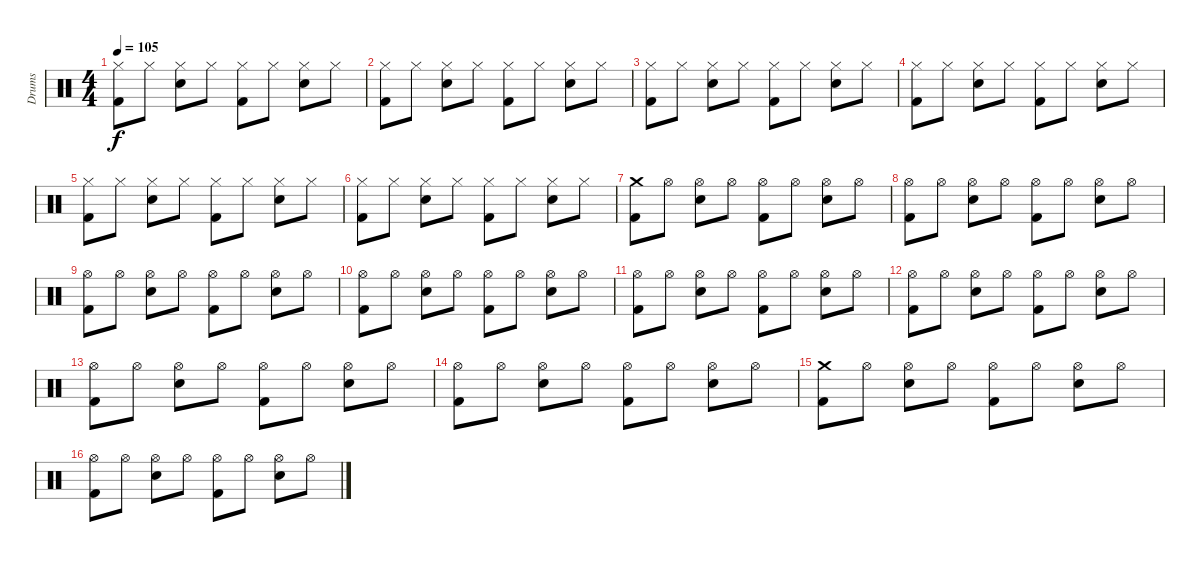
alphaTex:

\track ("Drums" "Drums") {instrument percussion}
\staff {score}
\articulation defaults
\ts (4 4)
\tempo 105
\clef neutral
\ks c
("Hi-Hat (closed)" "Kick (hit) 2").8{dy f} "Hi-Hat (closed)".8 ("Hi-Hat (closed)" "Electric Snare (hit)").8 "Hi-Hat (closed)".8 ("Hi-Hat (closed)" "Kick (hit) 2").8 "Hi-Hat (closed)".8 ("Hi-Hat (closed)" "Electric Snare (hit)").8 "Hi-Hat (closed)".8 |
("Hi-Hat (closed)" "Kick (hit) 2").8 "Hi-Hat (closed)".8 ("Hi-Hat (closed)" "Electric Snare (hit)").8 "Hi-Hat (closed)".8 ("Hi-Hat (closed)" "Kick (hit) 2").8 "Hi-Hat (closed)".8 ("Hi-Hat (closed)" "Electric Snare (hit)").8 "Hi-Hat (closed)".8 |
("Hi-Hat (closed)" "Kick (hit) 2").8 "Hi-Hat (closed)".8 ("Hi-Hat (closed)" "Electric Snare (hit)").8 "Hi-Hat (closed)".8 ("Hi-Hat (closed)" "Kick (hit) 2").8 "Hi-Hat (closed)".8 ("Hi-Hat (closed)" "Electric Snare (hit)").8 "Hi-Hat (closed)".8 |
("Hi-Hat (closed)" "Kick (hit) 2").8 "Hi-Hat (closed)".8 ("Hi-Hat (closed)" "Electric Snare (hit)").8 "Hi-Hat (closed)".8 ("Hi-Hat (closed)" "Kick (hit) 2").8 "Hi-Hat (closed)".8 ("Hi-Hat (closed)" "Electric Snare (hit)").8 "Hi-Hat (closed)".8 |
("Hi-Hat (closed)" "Kick (hit) 2").8 "Hi-Hat (closed)".8 ("Hi-Hat (closed)" "Electric Snare (hit)").8 "Hi-Hat (closed)".8 ("Hi-Hat (closed)" "Kick (hit) 2").8 "Hi-Hat (closed)".8 ("Hi-Hat (closed)" "Electric Snare (hit)").8 "Hi-Hat (closed)".8 |
("Hi-Hat (closed)" "Kick (hit) 2").8 "Hi-Hat (closed)".8 ("Hi-Hat (closed)" "Electric Snare (hit)").8 "Hi-Hat (closed)".8 ("Hi-Hat (closed)" "Kick (hit) 2").8 "Hi-Hat (closed)".8 ("Hi-Hat (closed)" "Electric Snare (hit)").8 "Hi-Hat (closed)".8 |
("Crash medium (hit)" "Kick (hit) 2").8 "Hi-Hat (open)".8 ("Hi-Hat (open)" "Electric Snare (hit)").8 "Hi-Hat (open)".8 ("Hi-Hat (open)" "Kick (hit) 2").8 "Hi-Hat (open)".8 ("Hi-Hat (open)" "Electric Snare (hit)").8 "Hi-Hat (open)".8 |
("Hi-Hat (open)" "Kick (hit) 2").8 "Hi-Hat (open)".8 ("Hi-Hat (open)" "Electric Snare (hit)").8 "Hi-Hat (open)".8 ("Hi-Hat (open)" "Kick (hit) 2").8 "Hi-Hat (open)".8 ("Hi-Hat (open)" "Electric Snare (hit)").8 "Hi-Hat (open)".8 |
("Hi-Hat (open)" "Kick (hit) 2").8 "Hi-Hat (open)".8 ("Hi-Hat (open)" "Electric Snare (hit)").8 "Hi-Hat (open)".8 ("Hi-Hat (open)" "Kick (hit) 2").8 "Hi-Hat (open)".8 ("Hi-Hat (open)" "Electric Snare (hit)").8 "Hi-Hat (open)".8 |
("Hi-Hat (open)" "Kick (hit) 2").8 "Hi-Hat (open)".8 ("Hi-Hat (open)" "Electric Snare (hit)").8 "Hi-Hat (open)".8 ("Hi-Hat (open)" "Kick (hit) 2").8 "Hi-Hat (open)".8 ("Hi-Hat (open)" "Electric Snare (hit)").8 "Hi-Hat (open)".8 |
("Hi-Hat (open)" "Kick (hit) 2").8 "Hi-Hat (open)".8 ("Hi-Hat (open)" "Electric Snare (hit)").8 "Hi-Hat (open)".8 ("Hi-Hat (open)" "Kick (hit) 2").8 "Hi-Hat (open)".8 ("Hi-Hat (open)" "Electric Snare (hit)").8 "Hi-Hat (open)".8 |
("Hi-Hat (open)" "Kick (hit) 2").8 "Hi-Hat (open)".8 ("Hi-Hat (open)" "Electric Snare (hit)").8 "Hi-Hat (open)".8 ("Hi-Hat (open)" "Kick (hit) 2").8 "Hi-Hat (open)".8 ("Hi-Hat (open)" "Electric Snare (hit)").8 "Hi-Hat (open)".8 |
("Hi-Hat (open)" "Kick (hit) 2").8 "Hi-Hat (open)".8 ("Hi-Hat (open)" "Electric Snare (hit)").8 "Hi-Hat (open)".8 ("Hi-Hat (open)" "Kick (hit) 2").8 "Hi-Hat (open)".8 ("Hi-Hat (open)" "Electric Snare (hit)").8 "Hi-Hat (open)".8 |
("Hi-Hat (open)" "Kick (hit) 2").8 "Hi-Hat (open)".8 ("Hi-Hat (open)" "Electric Snare (hit)").8 "Hi-Hat (open)".8 ("Hi-Hat (open)" "Kick (hit) 2").8 "Hi-Hat (open)".8 ("Hi-Hat (open)" "Electric Snare (hit)").8 "Hi-Hat (open)".8 |
("Crash medium (hit)" "Kick (hit) 2").8 "Hi-Hat (open)".8 ("Hi-Hat (open)" "Electric Snare (hit)").8 "Hi-Hat (open)".8 ("Hi-Hat (open)" "Kick (hit) 2").8 "Hi-Hat (open)".8 ("Hi-Hat (open)" "Electric Snare (hit)").8 "Hi-Hat (open)".8 |
("Hi-Hat (open)" "Kick (hit) 2").8 "Hi-Hat (open)".8 ("Hi-Hat (open)" "Electric Snare (hit)").8 "Hi-Hat (open)".8 ("Hi-Hat (open)" "Kick (hit) 2").8 "Hi-Hat (open)".8 ("Hi-Hat (open)" "Electric Snare (hit)").8 "Hi-Hat (open)".8
